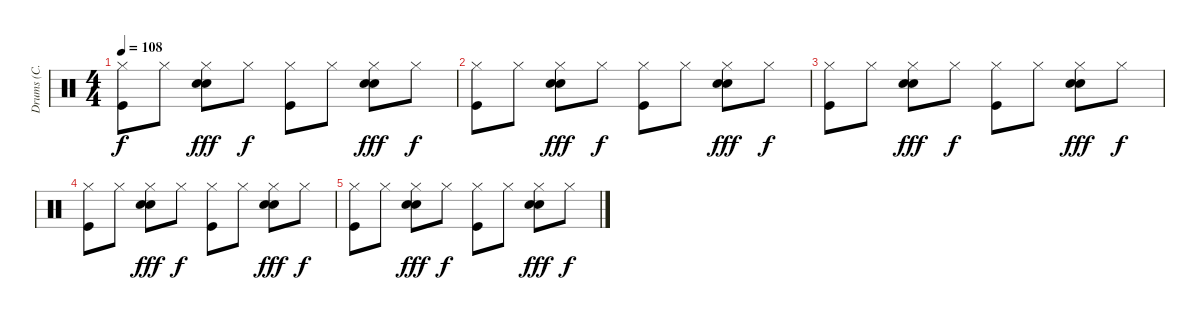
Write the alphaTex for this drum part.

\track ("Drums (C. Watts)" "Drums (C. ") {instrument percussion}
\staff {score}
\articulation defaults
\ts (4 4)
\tempo 108
\clef neutral
\ks c
("Hi-Hat (closed)" "Kick (hit)").8{dy f} "Hi-Hat (closed)".8 ("Hi-Hat (closed)" "Snare (hit) 2" "Electric Snare (hit)").8{dy fff} "Hi-Hat (closed)".8{dy f} ("Hi-Hat (closed)" "Kick (hit)").8 "Hi-Hat (closed)".8 ("Hi-Hat (closed)" "Snare (hit) 2" "Electric Snare (hit)").8{dy fff} "Hi-Hat (closed)".8{dy f} |
("Hi-Hat (closed)" "Kick (hit)").8{volume 0} "Hi-Hat (closed)".8 ("Hi-Hat (closed)" "Snare (hit) 2" "Electric Snare (hit)").8{dy fff} "Hi-Hat (closed)".8{dy f} ("Hi-Hat (closed)" "Kick (hit)").8 "Hi-Hat (closed)".8 ("Hi-Hat (closed)" "Snare (hit) 2" "Electric Snare (hit)").8{dy fff} "Hi-Hat (closed)".8{dy f} |
("Hi-Hat (closed)" "Kick (hit)").8 "Hi-Hat (closed)".8 ("Hi-Hat (closed)" "Snare (hit) 2" "Electric Snare (hit)").8{dy fff} "Hi-Hat (closed)".8{dy f} ("Hi-Hat (closed)" "Kick (hit)").8 "Hi-Hat (closed)".8 ("Hi-Hat (closed)" "Snare (hit) 2" "Electric Snare (hit)").8{dy fff} "Hi-Hat (closed)".8{dy f} |
("Hi-Hat (closed)" "Kick (hit)").8 "Hi-Hat (closed)".8 ("Hi-Hat (closed)" "Snare (hit) 2" "Electric Snare (hit)").8{dy fff} "Hi-Hat (closed)".8{dy f} ("Hi-Hat (closed)" "Kick (hit)").8 "Hi-Hat (closed)".8 ("Hi-Hat (closed)" "Snare (hit) 2" "Electric Snare (hit)").8{dy fff} "Hi-Hat (closed)".8{dy f} |
("Hi-Hat (closed)" "Kick (hit)").8 "Hi-Hat (closed)".8 ("Hi-Hat (closed)" "Snare (hit) 2" "Electric Snare (hit)").8{dy fff} "Hi-Hat (closed)".8{dy f} ("Hi-Hat (closed)" "Kick (hit)").8 "Hi-Hat (closed)".8 ("Hi-Hat (closed)" "Snare (hit) 2" "Electric Snare (hit)").8{dy fff} "Hi-Hat (closed)".8{dy f}
